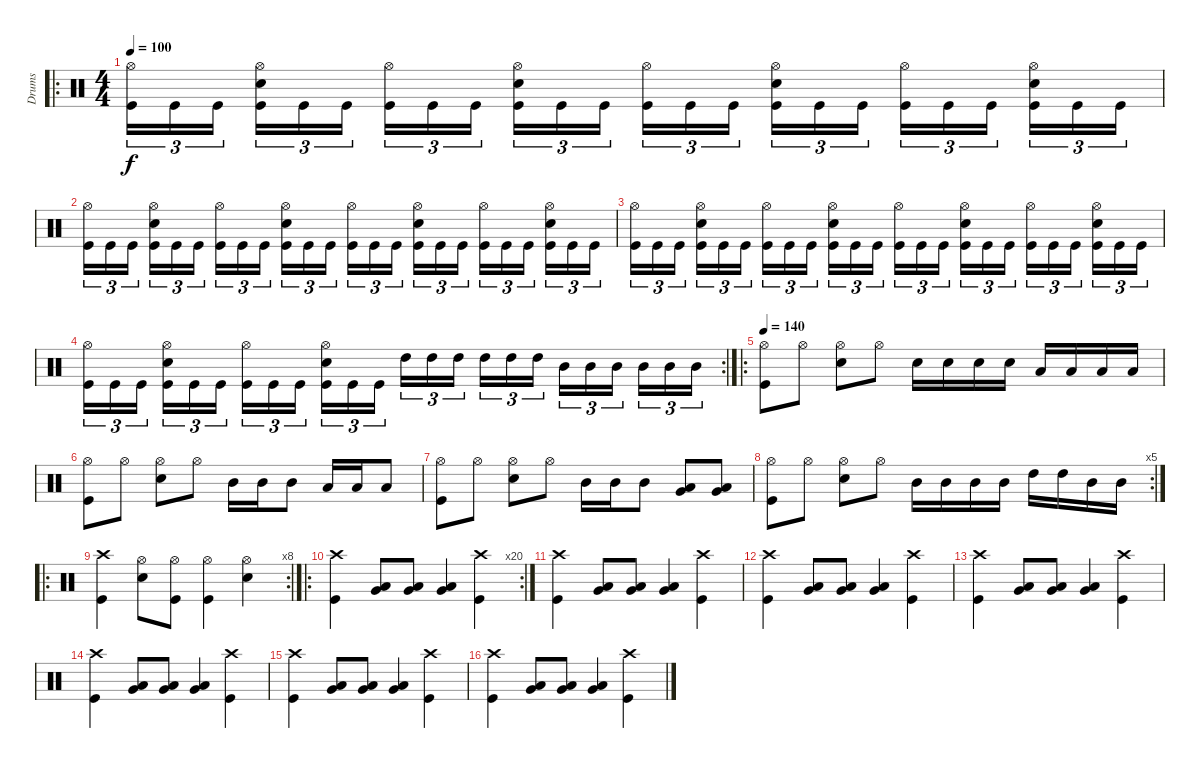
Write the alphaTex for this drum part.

\track ("Drums" "Drums") {instrument percussion}
\staff {score}
\articulation defaults
\ro
\ts (4 4)
\tempo 100
\clef neutral
\ks c
("Hi-Hat (open)" "Kick (hit)").16{tu (3 2) dy f} "Kick (hit)".16{tu (3 2)} "Kick (hit)".16{tu (3 2) beam splitsecondary} ("Snare (hit) 2" "Hi-Hat (open)" "Kick (hit)").16{tu (3 2)} "Kick (hit)".16{tu (3 2)} "Kick (hit)".16{tu (3 2)} ("Hi-Hat (open)" "Kick (hit)").16{tu (3 2)} "Kick (hit)".16{tu (3 2)} "Kick (hit)".16{tu (3 2) beam splitsecondary} ("Snare (hit) 2" "Hi-Hat (open)" "Kick (hit)").16{tu (3 2)} "Kick (hit)".16{tu (3 2)} "Kick (hit)".16{tu (3 2)} ("Hi-Hat (open)" "Kick (hit)").16{tu (3 2)} "Kick (hit)".16{tu (3 2)} "Kick (hit)".16{tu (3 2) beam splitsecondary} ("Snare (hit) 2" "Hi-Hat (open)" "Kick (hit)").16{tu (3 2)} "Kick (hit)".16{tu (3 2)} "Kick (hit)".16{tu (3 2)} ("Hi-Hat (open)" "Kick (hit)").16{tu (3 2)} "Kick (hit)".16{tu (3 2)} "Kick (hit)".16{tu (3 2) beam splitsecondary} ("Snare (hit) 2" "Hi-Hat (open)" "Kick (hit)").16{tu (3 2)} "Kick (hit)".16{tu (3 2)} "Kick (hit)".16{tu (3 2)} |
("Hi-Hat (open)" "Kick (hit)").16{tu (3 2)} "Kick (hit)".16{tu (3 2)} "Kick (hit)".16{tu (3 2) beam splitsecondary} ("Snare (hit) 2" "Hi-Hat (open)" "Kick (hit)").16{tu (3 2)} "Kick (hit)".16{tu (3 2)} "Kick (hit)".16{tu (3 2)} ("Hi-Hat (open)" "Kick (hit)").16{tu (3 2)} "Kick (hit)".16{tu (3 2)} "Kick (hit)".16{tu (3 2) beam splitsecondary} ("Snare (hit) 2" "Hi-Hat (open)" "Kick (hit)").16{tu (3 2)} "Kick (hit)".16{tu (3 2)} "Kick (hit)".16{tu (3 2)} ("Hi-Hat (open)" "Kick (hit)").16{tu (3 2)} "Kick (hit)".16{tu (3 2)} "Kick (hit)".16{tu (3 2) beam splitsecondary} ("Snare (hit) 2" "Hi-Hat (open)" "Kick (hit)").16{tu (3 2)} "Kick (hit)".16{tu (3 2)} "Kick (hit)".16{tu (3 2)} ("Hi-Hat (open)" "Kick (hit)").16{tu (3 2)} "Kick (hit)".16{tu (3 2)} "Kick (hit)".16{tu (3 2) beam splitsecondary} ("Snare (hit) 2" "Hi-Hat (open)" "Kick (hit)").16{tu (3 2)} "Kick (hit)".16{tu (3 2)} "Kick (hit)".16{tu (3 2)} |
("Hi-Hat (open)" "Kick (hit)").16{tu (3 2)} "Kick (hit)".16{tu (3 2)} "Kick (hit)".16{tu (3 2) beam splitsecondary} ("Snare (hit) 2" "Hi-Hat (open)" "Kick (hit)").16{tu (3 2)} "Kick (hit)".16{tu (3 2)} "Kick (hit)".16{tu (3 2)} ("Hi-Hat (open)" "Kick (hit)").16{tu (3 2)} "Kick (hit)".16{tu (3 2)} "Kick (hit)".16{tu (3 2) beam splitsecondary} ("Snare (hit) 2" "Hi-Hat (open)" "Kick (hit)").16{tu (3 2)} "Kick (hit)".16{tu (3 2)} "Kick (hit)".16{tu (3 2)} ("Hi-Hat (open)" "Kick (hit)").16{tu (3 2)} "Kick (hit)".16{tu (3 2)} "Kick (hit)".16{tu (3 2) beam splitsecondary} ("Snare (hit) 2" "Hi-Hat (open)" "Kick (hit)").16{tu (3 2)} "Kick (hit)".16{tu (3 2)} "Kick (hit)".16{tu (3 2)} ("Hi-Hat (open)" "Kick (hit)").16{tu (3 2)} "Kick (hit)".16{tu (3 2)} "Kick (hit)".16{tu (3 2) beam splitsecondary} ("Snare (hit) 2" "Hi-Hat (open)" "Kick (hit)").16{tu (3 2)} "Kick (hit)".16{tu (3 2)} "Kick (hit)".16{tu (3 2)} |
\rc 2
("Hi-Hat (open)" "Kick (hit)").16{tu (3 2)} "Kick (hit)".16{tu (3 2)} "Kick (hit)".16{tu (3 2) beam splitsecondary} ("Snare (hit) 2" "Hi-Hat (open)" "Kick (hit)").16{tu (3 2)} "Kick (hit)".16{tu (3 2)} "Kick (hit)".16{tu (3 2)} ("Hi-Hat (open)" "Kick (hit)").16{tu (3 2)} "Kick (hit)".16{tu (3 2)} "Kick (hit)".16{tu (3 2) beam splitsecondary} ("Snare (hit) 2" "Hi-Hat (open)" "Kick (hit)").16{tu (3 2)} "Kick (hit)".16{tu (3 2)} "Kick (hit)".16{tu (3 2)} "High Tom (hit)".16{tu (3 2)} "High Tom (hit)".16{tu (3 2)} "High Tom (hit)".16{tu (3 2) beam splitsecondary} "High Tom (hit)".16{tu (3 2)} "High Tom (hit)".16{tu (3 2)} "High Tom (hit)".16{tu (3 2)} "Mid Tom (hit)".16{tu (3 2)} "Mid Tom (hit)".16{tu (3 2)} "Mid Tom (hit)".16{tu (3 2) beam splitsecondary} "Mid Tom (hit)".16{tu (3 2)} "Mid Tom (hit)".16{tu (3 2)} "Mid Tom (hit)".16{tu (3 2)} |
\ro
\tempo 140
("Kick (hit)" "Hi-Hat (open)").8 "Hi-Hat (open)".8 ("Snare (hit) 2" "Hi-Hat (open)").8 "Hi-Hat (open)".8 "Snare (hit) 2".16 "Snare (hit) 2".16 "Snare (hit) 2".16 "Snare (hit) 2".16 "Low Tom (hit)".16 "Low Tom (hit)".16 "Low Tom (hit)".16 "Low Tom (hit)".16 |
("Kick (hit)" "Hi-Hat (open)").8 "Hi-Hat (open)".8 ("Snare (hit) 2" "Hi-Hat (open)").8 "Hi-Hat (open)".8 "Mid Tom (hit)".16 "Mid Tom (hit)".16 "Mid Tom (hit)".8 "Low Tom (hit)".16 "Low Tom (hit)".16 "Low Tom (hit)".8 |
("Kick (hit)" "Hi-Hat (open)").8 "Hi-Hat (open)".8 ("Snare (hit) 2" "Hi-Hat (open)").8 "Hi-Hat (open)".8 "Mid Tom (hit)".16 "Mid Tom (hit)".16 "Mid Tom (hit)".8 ("Low Tom (hit)" "Very Low Tom (hit)").8 ("Low Tom (hit)" "Very Low Tom (hit)").8 |
\rc 5
("Kick (hit)" "Hi-Hat (open)").8 "Hi-Hat (open)".8 ("Snare (hit) 2" "Hi-Hat (open)").8 "Hi-Hat (open)".8 "Mid Tom (hit)".16 "Mid Tom (hit)".16 "Mid Tom (hit)".16 "Mid Tom (hit)".16 "High Tom (hit)".16 "High Tom (hit)".16 "Mid Tom (hit)".16 "Mid Tom (hit)".16 |
\ro
\rc 8
("Kick (hit)" "Crash high (hit)").4 ("Snare (hit) 2" "Hi-Hat (open)").8 ("Kick (hit)" "Hi-Hat (open)").8 ("Kick (hit)" "Hi-Hat (open)").4 ("Snare (hit) 2" "Hi-Hat (open)").4 |
\ro
\rc 20
("Crash high (hit)" "Kick (hit)").4 ("Low Floor Tom (hit)" "Very Low Tom (hit)").8 ("Low Floor Tom (hit)" "Very Low Tom (hit)").8 ("Low Floor Tom (hit)" "Very Low Tom (hit)").4 ("Crash high (hit)" "Kick (hit)").4 |
("Crash high (hit)" "Kick (hit)").4 ("Low Floor Tom (hit)" "Very Low Tom (hit)").8 ("Low Floor Tom (hit)" "Very Low Tom (hit)").8 ("Low Floor Tom (hit)" "Very Low Tom (hit)").4 ("Crash high (hit)" "Kick (hit)").4 |
("Crash high (hit)" "Kick (hit)").4 ("Low Floor Tom (hit)" "Very Low Tom (hit)").8 ("Low Floor Tom (hit)" "Very Low Tom (hit)").8 ("Low Floor Tom (hit)" "Very Low Tom (hit)").4 ("Crash high (hit)" "Kick (hit)").4 |
("Crash high (hit)" "Kick (hit)").4 ("Low Floor Tom (hit)" "Very Low Tom (hit)").8 ("Low Floor Tom (hit)" "Very Low Tom (hit)").8 ("Low Floor Tom (hit)" "Very Low Tom (hit)").4 ("Crash high (hit)" "Kick (hit)").4 |
("Crash high (hit)" "Kick (hit)").4 ("Low Floor Tom (hit)" "Very Low Tom (hit)").8 ("Low Floor Tom (hit)" "Very Low Tom (hit)").8 ("Low Floor Tom (hit)" "Very Low Tom (hit)").4 ("Crash high (hit)" "Kick (hit)").4 |
("Crash high (hit)" "Kick (hit)").4 ("Low Floor Tom (hit)" "Very Low Tom (hit)").8 ("Low Floor Tom (hit)" "Very Low Tom (hit)").8 ("Low Floor Tom (hit)" "Very Low Tom (hit)").4 ("Crash high (hit)" "Kick (hit)").4 |
("Crash high (hit)" "Kick (hit)").4 ("Low Floor Tom (hit)" "Very Low Tom (hit)").8 ("Low Floor Tom (hit)" "Very Low Tom (hit)").8 ("Low Floor Tom (hit)" "Very Low Tom (hit)").4 ("Crash high (hit)" "Kick (hit)").4
